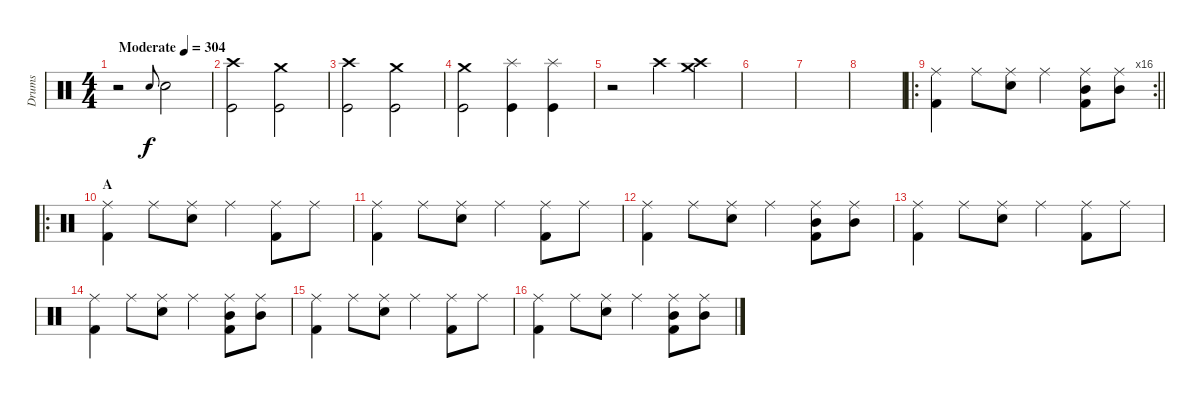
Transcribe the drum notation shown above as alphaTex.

\track ("Drums" "Drums") {instrument percussion}
\staff {score}
\articulation defaults
\ts (4 4)
\tempo (304 "Moderate")
\clef neutral
\ks c
r.2{dy f} "Snare (hit) 2".8{gr onbeat} "Snare (hit) 2".2 |
("Crash high (hit)" "Kick (hit)").2 ("Crash medium (hit)" "Kick (hit)").2 |
("Crash high (hit)" "Kick (hit)").2 ("Crash medium (hit)" "Kick (hit)").2 |
("Crash medium (hit)" "Kick (hit)").2 ("Splash (hit)" "Kick (hit)").4 ("Splash (hit)" "Kick (hit)").4 |
r.2 "Crash high (hit)".4 ("Crash medium (hit)" "Crash high (hit)").4 |
|
|
|
\ro
\rc 16
\barLineRight lightlight
("Ride (middle)" "Kick (hit) 2").4 "Ride (middle)".8 ("Ride (middle)" "Snare (hit) 2").8 "Ride (middle)".4 ("Ride (middle)" "Mid Tom (hit)" "Kick (hit) 2").8 ("Ride (middle)" "Mid Tom (hit)").8 |
\ro
\section ("" "A")
("Ride (middle)" "Kick (hit) 2").4 "Ride (middle)".8 ("Ride (middle)" "Snare (hit) 2").8 "Ride (middle)".4 ("Ride (middle)" "Kick (hit) 2").8 "Ride (middle)".8 |
("Ride (middle)" "Kick (hit) 2").4 "Ride (middle)".8 ("Ride (middle)" "Snare (hit) 2").8 "Ride (middle)".4 ("Ride (middle)" "Kick (hit) 2").8 "Ride (middle)".8 |
("Ride (middle)" "Kick (hit) 2").4 "Ride (middle)".8 ("Ride (middle)" "Snare (hit) 2").8 "Ride (middle)".4 ("Ride (middle)" "Mid Tom (hit)" "Kick (hit) 2").8 ("Ride (middle)" "Mid Tom (hit)").8 |
("Ride (middle)" "Kick (hit) 2").4 "Ride (middle)".8 ("Ride (middle)" "Snare (hit) 2").8 "Ride (middle)".4 ("Ride (middle)" "Kick (hit) 2").8 "Ride (middle)".8 |
("Ride (middle)" "Kick (hit) 2").4 "Ride (middle)".8 ("Ride (middle)" "Snare (hit) 2").8 "Ride (middle)".4 ("Ride (middle)" "Mid Tom (hit)" "Kick (hit) 2").8 ("Ride (middle)" "Mid Tom (hit)").8 |
("Ride (middle)" "Kick (hit) 2").4 "Ride (middle)".8 ("Ride (middle)" "Snare (hit) 2").8 "Ride (middle)".4 ("Ride (middle)" "Kick (hit) 2").8 "Ride (middle)".8 |
("Ride (middle)" "Kick (hit) 2").4 "Ride (middle)".8 ("Ride (middle)" "Snare (hit) 2").8 "Ride (middle)".4 ("Ride (middle)" "Mid Tom (hit)" "Kick (hit) 2").8 ("Ride (middle)" "Mid Tom (hit)").8
